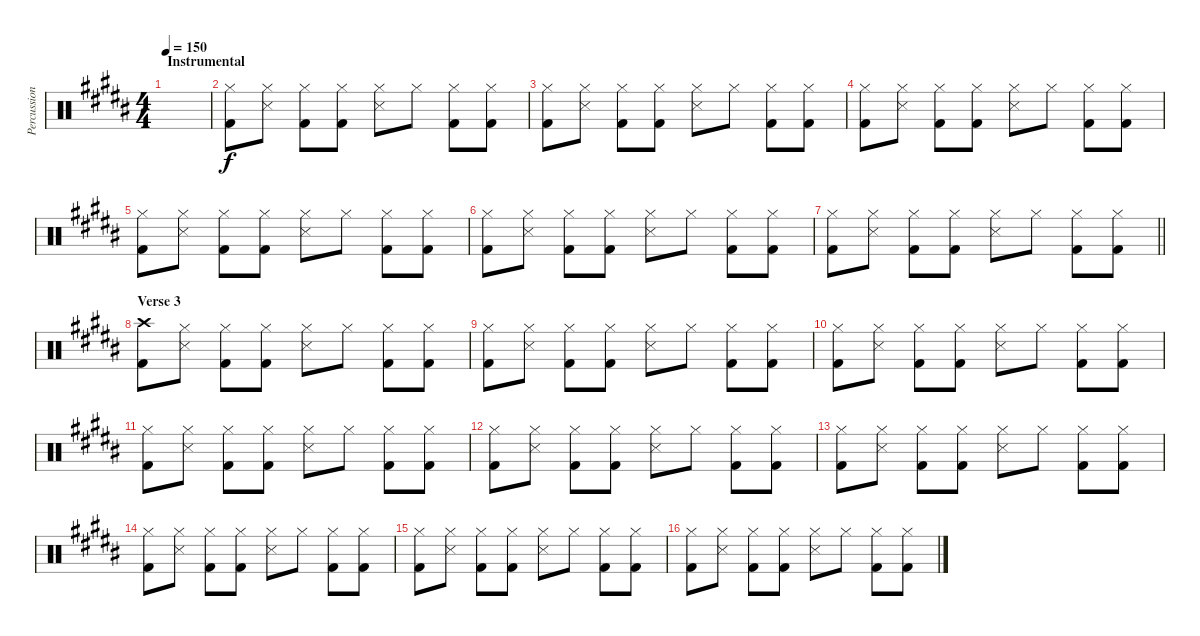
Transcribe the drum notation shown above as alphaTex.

\track ("Percussion" "Percussion") {instrument percussion}
\staff {score}
\articulation defaults
\ts (4 4)
\section ("" "Instrumental")
\tempo 150
\clef neutral
\ks b
|
("Hi-Hat (closed)" "Kick (hit) 2").8 ("Hi-Hat (closed)" "Snare (side stick) 3").8 ("Hi-Hat (closed)" "Kick (hit) 2").8 ("Hi-Hat (closed)" "Kick (hit) 2").8 ("Hi-Hat (closed)" "Snare (side stick) 3").8 "Hi-Hat (closed)".8 ("Hi-Hat (closed)" "Kick (hit) 2").8 ("Hi-Hat (closed)" "Kick (hit) 2").8 |
("Hi-Hat (closed)" "Kick (hit) 2").8 ("Hi-Hat (closed)" "Snare (side stick) 3").8 ("Hi-Hat (closed)" "Kick (hit) 2").8 ("Hi-Hat (closed)" "Kick (hit) 2").8 ("Hi-Hat (closed)" "Snare (side stick) 3").8 "Hi-Hat (closed)".8 ("Hi-Hat (closed)" "Kick (hit) 2").8 ("Hi-Hat (closed)" "Kick (hit) 2").8 |
("Hi-Hat (closed)" "Kick (hit) 2").8 ("Hi-Hat (closed)" "Snare (side stick) 3").8 ("Hi-Hat (closed)" "Kick (hit) 2").8 ("Hi-Hat (closed)" "Kick (hit) 2").8 ("Hi-Hat (closed)" "Snare (side stick) 3").8 "Hi-Hat (closed)".8 ("Hi-Hat (closed)" "Kick (hit) 2").8 ("Hi-Hat (closed)" "Kick (hit) 2").8 |
("Hi-Hat (closed)" "Kick (hit) 2").8 ("Hi-Hat (closed)" "Snare (side stick) 3").8 ("Hi-Hat (closed)" "Kick (hit) 2").8 ("Hi-Hat (closed)" "Kick (hit) 2").8 ("Hi-Hat (closed)" "Snare (side stick) 3").8 "Hi-Hat (closed)".8 ("Hi-Hat (closed)" "Kick (hit) 2").8 ("Hi-Hat (closed)" "Kick (hit) 2").8 |
("Hi-Hat (closed)" "Kick (hit) 2").8 ("Hi-Hat (closed)" "Snare (side stick) 3").8 ("Hi-Hat (closed)" "Kick (hit) 2").8 ("Hi-Hat (closed)" "Kick (hit) 2").8 ("Hi-Hat (closed)" "Snare (side stick) 3").8 "Hi-Hat (closed)".8 ("Hi-Hat (closed)" "Kick (hit) 2").8 ("Hi-Hat (closed)" "Kick (hit) 2").8 |
\barLineRight lightlight
("Hi-Hat (closed)" "Kick (hit) 2").8 ("Hi-Hat (closed)" "Snare (side stick) 3").8 ("Hi-Hat (closed)" "Kick (hit) 2").8 ("Hi-Hat (closed)" "Kick (hit) 2").8 ("Hi-Hat (closed)" "Snare (side stick) 3").8 "Hi-Hat (closed)".8 ("Hi-Hat (closed)" "Kick (hit) 2").8 ("Hi-Hat (closed)" "Kick (hit) 2").8 |
\section ("" "Verse 3")
("Crash high (hit)" "Kick (hit) 2").8 ("Hi-Hat (closed)" "Snare (side stick) 3").8 ("Hi-Hat (closed)" "Kick (hit) 2").8 ("Hi-Hat (closed)" "Kick (hit) 2").8 ("Hi-Hat (closed)" "Snare (side stick) 3").8 "Hi-Hat (closed)".8 ("Hi-Hat (closed)" "Kick (hit) 2").8 ("Hi-Hat (closed)" "Kick (hit) 2").8 |
("Hi-Hat (closed)" "Kick (hit) 2").8 ("Hi-Hat (closed)" "Snare (side stick) 3").8 ("Hi-Hat (closed)" "Kick (hit) 2").8 ("Hi-Hat (closed)" "Kick (hit) 2").8 ("Hi-Hat (closed)" "Snare (side stick) 3").8 "Hi-Hat (closed)".8 ("Hi-Hat (closed)" "Kick (hit) 2").8 ("Hi-Hat (closed)" "Kick (hit) 2").8 |
("Hi-Hat (closed)" "Kick (hit) 2").8 ("Hi-Hat (closed)" "Snare (side stick) 3").8 ("Hi-Hat (closed)" "Kick (hit) 2").8 ("Hi-Hat (closed)" "Kick (hit) 2").8 ("Hi-Hat (closed)" "Snare (side stick) 3").8 "Hi-Hat (closed)".8 ("Hi-Hat (closed)" "Kick (hit) 2").8 ("Hi-Hat (closed)" "Kick (hit) 2").8 |
("Hi-Hat (closed)" "Kick (hit) 2").8 ("Hi-Hat (closed)" "Snare (side stick) 3").8 ("Hi-Hat (closed)" "Kick (hit) 2").8 ("Hi-Hat (closed)" "Kick (hit) 2").8 ("Hi-Hat (closed)" "Snare (side stick) 3").8 "Hi-Hat (closed)".8 ("Hi-Hat (closed)" "Kick (hit) 2").8 ("Hi-Hat (closed)" "Kick (hit) 2").8 |
("Hi-Hat (closed)" "Kick (hit) 2").8 ("Hi-Hat (closed)" "Snare (side stick) 3").8 ("Hi-Hat (closed)" "Kick (hit) 2").8 ("Hi-Hat (closed)" "Kick (hit) 2").8 ("Hi-Hat (closed)" "Snare (side stick) 3").8 "Hi-Hat (closed)".8 ("Hi-Hat (closed)" "Kick (hit) 2").8 ("Hi-Hat (closed)" "Kick (hit) 2").8 |
("Hi-Hat (closed)" "Kick (hit) 2").8 ("Hi-Hat (closed)" "Snare (side stick) 3").8 ("Hi-Hat (closed)" "Kick (hit) 2").8 ("Hi-Hat (closed)" "Kick (hit) 2").8 ("Hi-Hat (closed)" "Snare (side stick) 3").8 "Hi-Hat (closed)".8 ("Hi-Hat (closed)" "Kick (hit) 2").8 ("Hi-Hat (closed)" "Kick (hit) 2").8 |
("Hi-Hat (closed)" "Kick (hit) 2").8 ("Hi-Hat (closed)" "Snare (side stick) 3").8 ("Hi-Hat (closed)" "Kick (hit) 2").8 ("Hi-Hat (closed)" "Kick (hit) 2").8 ("Hi-Hat (closed)" "Snare (side stick) 3").8 "Hi-Hat (closed)".8 ("Hi-Hat (closed)" "Kick (hit) 2").8 ("Hi-Hat (closed)" "Kick (hit) 2").8 |
("Hi-Hat (closed)" "Kick (hit) 2").8 ("Hi-Hat (closed)" "Snare (side stick) 3").8 ("Hi-Hat (closed)" "Kick (hit) 2").8 ("Hi-Hat (closed)" "Kick (hit) 2").8 ("Hi-Hat (closed)" "Snare (side stick) 3").8 "Hi-Hat (closed)".8 ("Hi-Hat (closed)" "Kick (hit) 2").8 ("Hi-Hat (closed)" "Kick (hit) 2").8 |
("Hi-Hat (closed)" "Kick (hit) 2").8 ("Hi-Hat (closed)" "Snare (side stick) 3").8 ("Hi-Hat (closed)" "Kick (hit) 2").8 ("Hi-Hat (closed)" "Kick (hit) 2").8 ("Hi-Hat (closed)" "Snare (side stick) 3").8 "Hi-Hat (closed)".8 ("Hi-Hat (closed)" "Kick (hit) 2").8 ("Hi-Hat (closed)" "Kick (hit) 2").8
